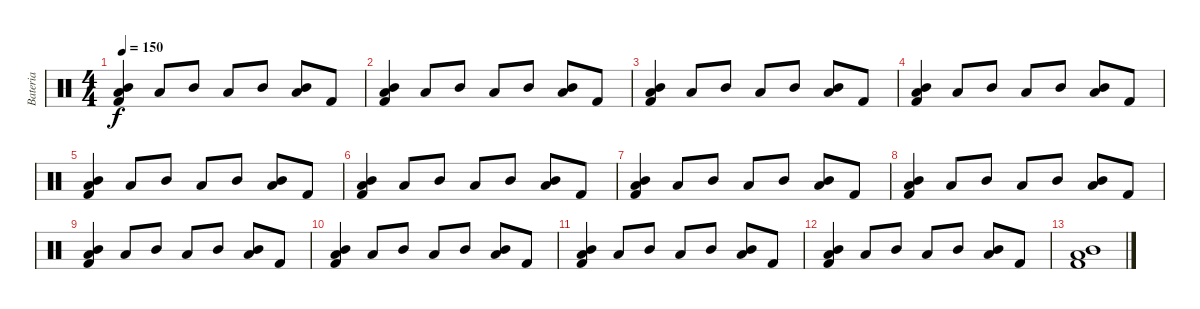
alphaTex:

\track ("Bateria" "Bateria") {instrument percussion}
\staff {score}
\articulation defaults
\ts (4 4)
\tempo 150
\clef neutral
\ks c
("Kick (hit) 2" "Low Tom (hit)" "Mid Tom (hit)").4{dy f} "Low Tom (hit)".8 "Mid Tom (hit)".8 "Low Tom (hit)".8 "Mid Tom (hit)".8 ("Low Tom (hit)" "Mid Tom (hit)").8 "Kick (hit) 2".8 |
("Kick (hit) 2" "Low Tom (hit)" "Mid Tom (hit)").4 "Low Tom (hit)".8 "Mid Tom (hit)".8 "Low Tom (hit)".8 "Mid Tom (hit)".8 ("Low Tom (hit)" "Mid Tom (hit)").8 "Kick (hit) 2".8 |
("Kick (hit) 2" "Low Tom (hit)" "Mid Tom (hit)").4 "Low Tom (hit)".8 "Mid Tom (hit)".8 "Low Tom (hit)".8 "Mid Tom (hit)".8 ("Low Tom (hit)" "Mid Tom (hit)").8 "Kick (hit) 2".8 |
("Kick (hit) 2" "Low Tom (hit)" "Mid Tom (hit)").4 "Low Tom (hit)".8 "Mid Tom (hit)".8 "Low Tom (hit)".8 "Mid Tom (hit)".8 ("Low Tom (hit)" "Mid Tom (hit)").8 "Kick (hit) 2".8 |
("Kick (hit) 2" "Low Tom (hit)" "Mid Tom (hit)").4 "Low Tom (hit)".8 "Mid Tom (hit)".8 "Low Tom (hit)".8 "Mid Tom (hit)".8 ("Low Tom (hit)" "Mid Tom (hit)").8 "Kick (hit) 2".8 |
("Kick (hit) 2" "Low Tom (hit)" "Mid Tom (hit)").4 "Low Tom (hit)".8 "Mid Tom (hit)".8 "Low Tom (hit)".8 "Mid Tom (hit)".8 ("Low Tom (hit)" "Mid Tom (hit)").8 "Kick (hit) 2".8 |
("Kick (hit) 2" "Low Tom (hit)" "Mid Tom (hit)").4 "Low Tom (hit)".8 "Mid Tom (hit)".8 "Low Tom (hit)".8 "Mid Tom (hit)".8 ("Low Tom (hit)" "Mid Tom (hit)").8 "Kick (hit) 2".8 |
("Kick (hit) 2" "Low Tom (hit)" "Mid Tom (hit)").4 "Low Tom (hit)".8 "Mid Tom (hit)".8 "Low Tom (hit)".8 "Mid Tom (hit)".8 ("Low Tom (hit)" "Mid Tom (hit)").8 "Kick (hit) 2".8 |
("Kick (hit) 2" "Low Tom (hit)" "Mid Tom (hit)").4 "Low Tom (hit)".8 "Mid Tom (hit)".8 "Low Tom (hit)".8 "Mid Tom (hit)".8 ("Low Tom (hit)" "Mid Tom (hit)").8 "Kick (hit) 2".8 |
("Kick (hit) 2" "Low Tom (hit)" "Mid Tom (hit)").4 "Low Tom (hit)".8 "Mid Tom (hit)".8 "Low Tom (hit)".8 "Mid Tom (hit)".8 ("Low Tom (hit)" "Mid Tom (hit)").8 "Kick (hit) 2".8 |
("Kick (hit) 2" "Low Tom (hit)" "Mid Tom (hit)").4 "Low Tom (hit)".8 "Mid Tom (hit)".8 "Low Tom (hit)".8 "Mid Tom (hit)".8 ("Low Tom (hit)" "Mid Tom (hit)").8 "Kick (hit) 2".8 |
("Kick (hit) 2" "Low Tom (hit)" "Mid Tom (hit)").4 "Low Tom (hit)".8 "Mid Tom (hit)".8 "Low Tom (hit)".8 "Mid Tom (hit)".8 ("Low Tom (hit)" "Mid Tom (hit)").8 "Kick (hit) 2".8 |
("Kick (hit) 2" "Low Tom (hit)" "Mid Tom (hit)").1
